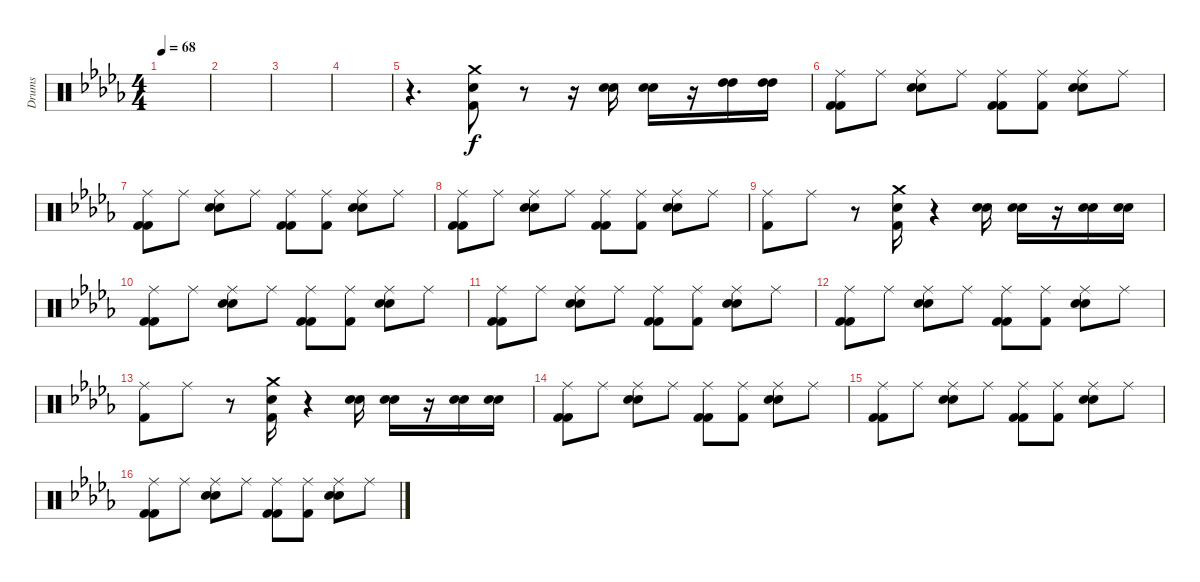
\track ("Drums" "Drums") {instrument percussion}
\staff {score}
\articulation defaults
\ts (4 4)
\tempo 68
\clef neutral
\ks bbminor
|
|
|
|
r.4{d} ("Crash medium (hit)" "Snare (hit) 2" "Kick (hit) 2").8 r.8 r.16 ("Snare (hit) 2" "Snare (hit) 2").16 ("Snare (hit) 2" "Snare (hit) 2").16 r.16 ("High Tom (hit)" "High Tom (hit)").16 ("High Tom (hit)" "High Tom (hit)").16 |
("Ride (middle)" "Kick (hit) 2" "Kick (hit) 2").8 "Ride (middle)".8 ("Ride (middle)" "Snare (hit) 2" "Snare (hit) 2").8 "Ride (middle)".8 ("Ride (middle)" "Kick (hit) 2" "Kick (hit) 2").8 ("Ride (middle)" "Kick (hit) 2").8 ("Ride (middle)" "Snare (hit) 2" "Snare (hit) 2").8 "Ride (middle)".8 |
("Ride (middle)" "Kick (hit) 2" "Kick (hit) 2").8 "Ride (middle)".8 ("Ride (middle)" "Snare (hit) 2" "Snare (hit) 2").8 "Ride (middle)".8 ("Ride (middle)" "Kick (hit) 2" "Kick (hit) 2").8 ("Ride (middle)" "Kick (hit) 2").8 ("Ride (middle)" "Snare (hit) 2" "Snare (hit) 2").8 "Ride (middle)".8 |
("Ride (middle)" "Kick (hit) 2" "Kick (hit) 2").8 "Ride (middle)".8 ("Ride (middle)" "Snare (hit) 2" "Snare (hit) 2").8 "Ride (middle)".8 ("Ride (middle)" "Kick (hit) 2" "Kick (hit) 2").8 ("Ride (middle)" "Kick (hit) 2").8 ("Ride (middle)" "Snare (hit) 2" "Snare (hit) 2").8 "Ride (middle)".8 |
("Ride (middle)" "Kick (hit) 2").8 "Ride (middle)".8 r.8 ("Crash medium (hit)" "Snare (hit) 2" "Kick (hit) 2").16 r.4 ("Snare (hit) 2" "Snare (hit) 2").16 ("Snare (hit) 2" "Snare (hit) 2").16 r.16 ("Snare (hit) 2" "Snare (hit) 2").16 ("Snare (hit) 2" "Snare (hit) 2").16 |
("Ride (middle)" "Kick (hit) 2" "Kick (hit) 2").8 "Ride (middle)".8 ("Ride (middle)" "Snare (hit) 2" "Snare (hit) 2").8 "Ride (middle)".8 ("Ride (middle)" "Kick (hit) 2" "Kick (hit) 2").8 ("Ride (middle)" "Kick (hit) 2").8 ("Ride (middle)" "Snare (hit) 2" "Snare (hit) 2").8 "Ride (middle)".8 |
("Ride (middle)" "Kick (hit) 2" "Kick (hit) 2").8 "Ride (middle)".8 ("Ride (middle)" "Snare (hit) 2" "Snare (hit) 2").8 "Ride (middle)".8 ("Ride (middle)" "Kick (hit) 2" "Kick (hit) 2").8 ("Ride (middle)" "Kick (hit) 2").8 ("Ride (middle)" "Snare (hit) 2" "Snare (hit) 2").8 "Ride (middle)".8 |
("Ride (middle)" "Kick (hit) 2" "Kick (hit) 2").8 "Ride (middle)".8 ("Ride (middle)" "Snare (hit) 2" "Snare (hit) 2").8 "Ride (middle)".8 ("Ride (middle)" "Kick (hit) 2" "Kick (hit) 2").8 ("Ride (middle)" "Kick (hit) 2").8 ("Ride (middle)" "Snare (hit) 2" "Snare (hit) 2").8 "Ride (middle)".8 |
("Ride (middle)" "Kick (hit) 2").8 "Ride (middle)".8 r.8 ("Crash medium (hit)" "Snare (hit) 2" "Kick (hit) 2").16 r.4 ("Snare (hit) 2" "Snare (hit) 2").16 ("Snare (hit) 2" "Snare (hit) 2").16 r.16 ("Snare (hit) 2" "Snare (hit) 2").16 ("Snare (hit) 2" "Snare (hit) 2").16 |
("Ride (middle)" "Kick (hit) 2" "Kick (hit) 2").8 "Ride (middle)".8 ("Ride (middle)" "Snare (hit) 2" "Snare (hit) 2").8 "Ride (middle)".8 ("Ride (middle)" "Kick (hit) 2" "Kick (hit) 2").8 ("Ride (middle)" "Kick (hit) 2").8 ("Ride (middle)" "Snare (hit) 2" "Snare (hit) 2").8 "Ride (middle)".8 |
("Ride (middle)" "Kick (hit) 2" "Kick (hit) 2").8 "Ride (middle)".8 ("Ride (middle)" "Snare (hit) 2" "Snare (hit) 2").8 "Ride (middle)".8 ("Ride (middle)" "Kick (hit) 2" "Kick (hit) 2").8 ("Ride (middle)" "Kick (hit) 2").8 ("Ride (middle)" "Snare (hit) 2" "Snare (hit) 2").8 "Ride (middle)".8 |
("Ride (middle)" "Kick (hit) 2" "Kick (hit) 2").8 "Ride (middle)".8 ("Ride (middle)" "Snare (hit) 2" "Snare (hit) 2").8 "Ride (middle)".8 ("Ride (middle)" "Kick (hit) 2" "Kick (hit) 2").8 ("Ride (middle)" "Kick (hit) 2").8 ("Ride (middle)" "Snare (hit) 2" "Snare (hit) 2").8 "Ride (middle)".8
